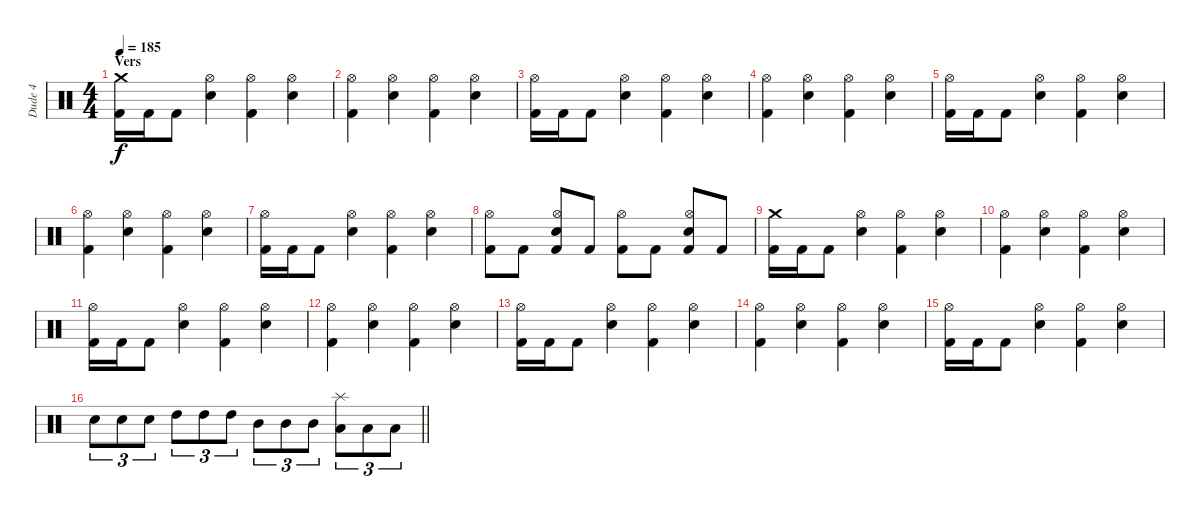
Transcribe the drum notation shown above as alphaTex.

\track ("Dude 4" "Dude 4") {instrument percussion}
\staff {score}
\articulation defaults
\ts (4 4)
\section ("" "Vers")
\tempo 185
\clef neutral
\ks c
("Crash medium (hit)" "Kick (hit) 2").16{dy f} "Kick (hit) 2".16 "Kick (hit) 2".8 ("Hi-Hat (open)" "Electric Snare (hit)").4 ("Hi-Hat (open)" "Kick (hit) 2").4 ("Hi-Hat (open)" "Electric Snare (hit)").4 |
("Hi-Hat (open)" "Kick (hit) 2").4 ("Hi-Hat (open)" "Electric Snare (hit)").4 ("Hi-Hat (open)" "Kick (hit) 2").4 ("Hi-Hat (open)" "Electric Snare (hit)").4 |
("Hi-Hat (open)" "Kick (hit) 2").16 "Kick (hit) 2".16 "Kick (hit) 2".8 ("Hi-Hat (open)" "Electric Snare (hit)").4 ("Hi-Hat (open)" "Kick (hit) 2").4 ("Hi-Hat (open)" "Electric Snare (hit)").4 |
("Hi-Hat (open)" "Kick (hit) 2").4 ("Hi-Hat (open)" "Electric Snare (hit)").4 ("Hi-Hat (open)" "Kick (hit) 2").4 ("Hi-Hat (open)" "Electric Snare (hit)").4 |
("Hi-Hat (open)" "Kick (hit) 2").16 "Kick (hit) 2".16 "Kick (hit) 2".8 ("Hi-Hat (open)" "Electric Snare (hit)").4 ("Hi-Hat (open)" "Kick (hit) 2").4 ("Hi-Hat (open)" "Electric Snare (hit)").4 |
("Hi-Hat (open)" "Kick (hit) 2").4 ("Hi-Hat (open)" "Electric Snare (hit)").4 ("Hi-Hat (open)" "Kick (hit) 2").4 ("Hi-Hat (open)" "Electric Snare (hit)").4 |
("Hi-Hat (open)" "Kick (hit) 2").16 "Kick (hit) 2".16 "Kick (hit) 2".8 ("Hi-Hat (open)" "Electric Snare (hit)").4 ("Hi-Hat (open)" "Kick (hit) 2").4 ("Hi-Hat (open)" "Electric Snare (hit)").4 |
("Hi-Hat (open)" "Kick (hit) 2").8 "Kick (hit) 2".8 ("Hi-Hat (open)" "Electric Snare (hit)" "Kick (hit) 2").8 "Kick (hit) 2".8 ("Hi-Hat (open)" "Kick (hit) 2").8 "Kick (hit) 2".8 ("Hi-Hat (open)" "Electric Snare (hit)" "Kick (hit) 2").8 "Kick (hit) 2".8 |
("Crash medium (hit)" "Kick (hit) 2").16 "Kick (hit) 2".16 "Kick (hit) 2".8 ("Hi-Hat (open)" "Electric Snare (hit)").4 ("Hi-Hat (open)" "Kick (hit) 2").4 ("Hi-Hat (open)" "Electric Snare (hit)").4 |
("Hi-Hat (open)" "Kick (hit) 2").4 ("Hi-Hat (open)" "Electric Snare (hit)").4 ("Hi-Hat (open)" "Kick (hit) 2").4 ("Hi-Hat (open)" "Electric Snare (hit)").4 |
("Hi-Hat (open)" "Kick (hit) 2").16 "Kick (hit) 2".16 "Kick (hit) 2".8 ("Hi-Hat (open)" "Electric Snare (hit)").4 ("Hi-Hat (open)" "Kick (hit) 2").4 ("Hi-Hat (open)" "Electric Snare (hit)").4 |
("Hi-Hat (open)" "Kick (hit) 2").4 ("Hi-Hat (open)" "Electric Snare (hit)").4 ("Hi-Hat (open)" "Kick (hit) 2").4 ("Hi-Hat (open)" "Electric Snare (hit)").4 |
("Hi-Hat (open)" "Kick (hit) 2").16 "Kick (hit) 2".16 "Kick (hit) 2".8 ("Hi-Hat (open)" "Electric Snare (hit)").4 ("Hi-Hat (open)" "Kick (hit) 2").4 ("Hi-Hat (open)" "Electric Snare (hit)").4 |
("Hi-Hat (open)" "Kick (hit) 2").4 ("Hi-Hat (open)" "Electric Snare (hit)").4 ("Hi-Hat (open)" "Kick (hit) 2").4 ("Hi-Hat (open)" "Electric Snare (hit)").4 |
("Hi-Hat (open)" "Kick (hit) 2").16 "Kick (hit) 2".16 "Kick (hit) 2".8 ("Hi-Hat (open)" "Electric Snare (hit)").4 ("Hi-Hat (open)" "Kick (hit) 2").4 ("Hi-Hat (open)" "Electric Snare (hit)").4 |
\barLineRight lightlight "Electric Snare (hit)".8{tu (3 2)} "Electric Snare (hit)".8{tu (3 2)} "Electric Snare (hit)".8{tu (3 2)} "High Tom (hit)".8{tu (3 2)} "High Tom (hit)".8{tu (3 2)} "High Tom (hit)".8{tu (3 2)} "Mid Tom (hit)".8{tu (3 2)} "Mid Tom (hit)".8{tu (3 2)} "Mid Tom (hit)".8{tu (3 2)}
("Splash (hit)" "Low Tom (hit)").8{tu (3 2)} "Low Tom (hit)".8{tu (3 2)} "Low Tom (hit)".8{tu (3 2)}
